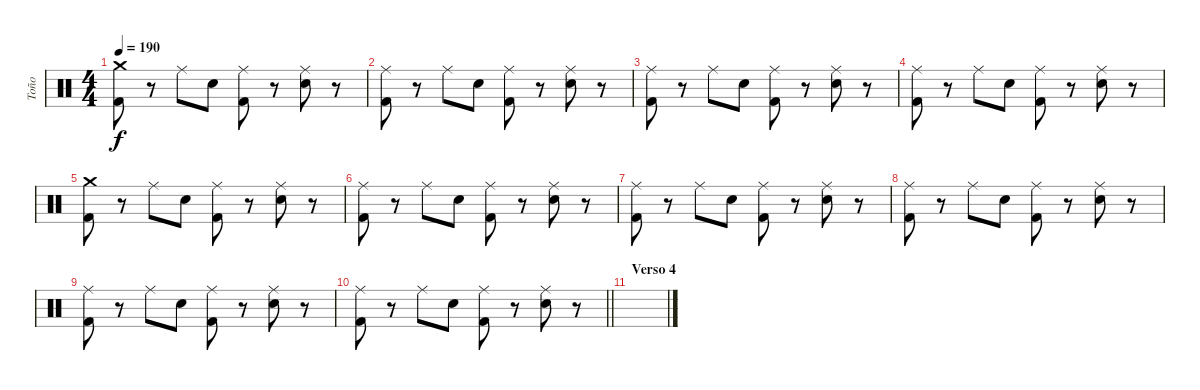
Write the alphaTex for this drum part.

\track ("Toño" "Toño") {instrument percussion}
\staff {score}
\articulation defaults
\ts (4 4)
\tempo 190
\clef neutral
\ks c
("Crash medium (hit)" "Kick (hit) 2").8{dy f} r.8 "Ride (middle)".8 "Snare (hit) 2".8 ("Ride (middle)" "Kick (hit) 2").8 r.8 ("Ride (middle)" "Snare (hit) 2").8 r.8 |
("Ride (middle)" "Kick (hit) 2").8 r.8 "Ride (middle)".8 "Snare (hit) 2".8 ("Ride (middle)" "Kick (hit) 2").8 r.8 ("Ride (middle)" "Snare (hit) 2").8 r.8 |
("Ride (middle)" "Kick (hit) 2").8 r.8 "Ride (middle)".8 "Snare (hit) 2".8 ("Ride (middle)" "Kick (hit) 2").8 r.8 ("Ride (middle)" "Snare (hit) 2").8 r.8 |
("Ride (middle)" "Kick (hit) 2").8 r.8 "Ride (middle)".8 "Snare (hit) 2".8 ("Ride (middle)" "Kick (hit) 2").8 r.8 ("Ride (middle)" "Snare (hit) 2").8 r.8 |
("Crash medium (hit)" "Kick (hit) 2").8 r.8 "Ride (middle)".8 "Snare (hit) 2".8 ("Ride (middle)" "Kick (hit) 2").8 r.8 ("Ride (middle)" "Snare (hit) 2").8 r.8 |
("Ride (middle)" "Kick (hit) 2").8 r.8 "Ride (middle)".8 "Snare (hit) 2".8 ("Ride (middle)" "Kick (hit) 2").8 r.8 ("Ride (middle)" "Snare (hit) 2").8 r.8 |
("Ride (middle)" "Kick (hit) 2").8 r.8 "Ride (middle)".8 "Snare (hit) 2".8 ("Ride (middle)" "Kick (hit) 2").8 r.8 ("Ride (middle)" "Snare (hit) 2").8 r.8 |
("Ride (middle)" "Kick (hit) 2").8 r.8 "Ride (middle)".8 "Snare (hit) 2".8 ("Ride (middle)" "Kick (hit) 2").8 r.8 ("Ride (middle)" "Snare (hit) 2").8 r.8 |
("Ride (middle)" "Kick (hit) 2").8 r.8 "Ride (middle)".8 "Snare (hit) 2".8 ("Ride (middle)" "Kick (hit) 2").8 r.8 ("Ride (middle)" "Snare (hit) 2").8 r.8 |
\barLineRight lightlight
("Ride (middle)" "Kick (hit) 2").8 r.8 "Ride (middle)".8 "Snare (hit) 2".8 ("Ride (middle)" "Kick (hit) 2").8 r.8 ("Ride (middle)" "Snare (hit) 2").8 r.8 |
\section ("" "Verso 4")
